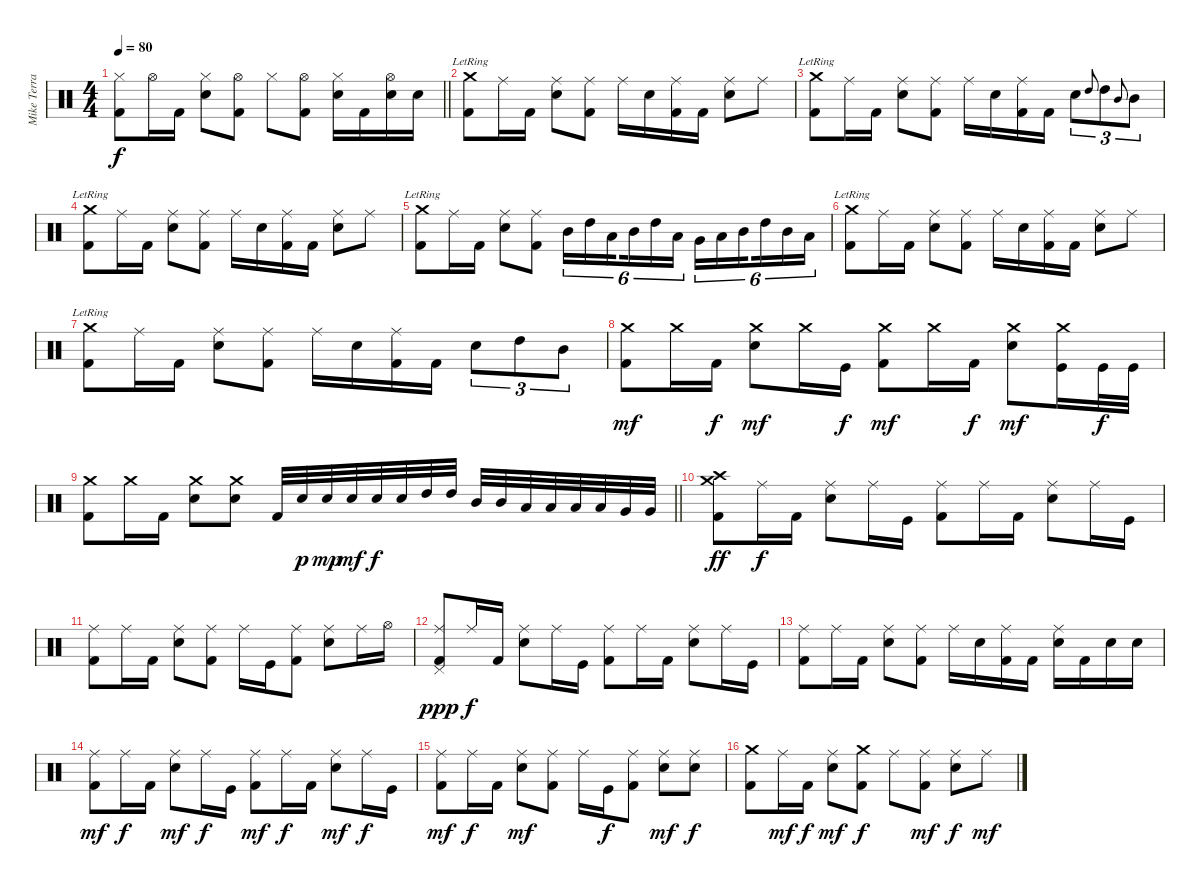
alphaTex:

\track ("Mike Terrana" "Mike Terra") {instrument percussion}
\staff {score}
\articulation defaults
\ts (4 4)
\tempo 80
\clef neutral
\barLineRight lightlight
\ks c
("Hi-Hat (closed)" "Kick (hit) 2").8{dy f} "Hi-Hat (open)".16 "Kick (hit) 2".16 ("Hi-Hat (closed)" "Electric Snare (hit)").8 ("Hi-Hat (open)" "Kick (hit) 2").8 "Hi-Hat (closed)".8 ("Hi-Hat (open)" "Kick (hit) 2").8 ("Hi-Hat (closed)" "Electric Snare (hit)").16 "Kick (hit) 2".16 ("Hi-Hat (open)" "Electric Snare (hit)").16 "Electric Snare (hit)".16 |
("Crash medium (hit)"{lr} "Kick (hit) 2").8 "Ride (middle)".16 "Kick (hit) 2".16 ("Ride (middle)" "Electric Snare (hit)").8 ("Ride (middle)" "Kick (hit) 2").8 "Ride (middle)".16 "Electric Snare (hit)".16 ("Ride (middle)" "Kick (hit) 2").16 "Kick (hit) 2".16 ("Ride (middle)" "Electric Snare (hit)").8 "Ride (middle)".8 |
("Crash medium (hit)"{lr} "Kick (hit) 2").8 "Ride (middle)".16 "Kick (hit) 2".16 ("Ride (middle)" "Electric Snare (hit)").8 ("Ride (middle)" "Kick (hit) 2").8 "Ride (middle)".16 "Electric Snare (hit)".16 ("Ride (middle)" "Kick (hit) 2").16 "Kick (hit) 2".16 "Electric Snare (hit)".8{tu (3 2)} "High Tom (hit)".8{gr onbeat} "High Tom (hit)".8{tu (3 2)} "Mid Tom (hit)".8{gr onbeat} "Mid Tom (hit)".8{tu (3 2)} |
("Crash medium (hit)"{lr} "Kick (hit) 2").8 "Ride (middle)".16 "Kick (hit) 2".16 ("Ride (middle)" "Electric Snare (hit)").8 ("Ride (middle)" "Kick (hit) 2").8 "Ride (middle)".16 "Electric Snare (hit)".16 ("Ride (middle)" "Kick (hit) 2").16 "Kick (hit) 2".16 ("Ride (middle)" "Electric Snare (hit)").8 "Ride (middle)".8 |
("Crash medium (hit)"{lr} "Kick (hit) 2").8 "Ride (middle)".16 "Kick (hit) 2".16 ("Ride (middle)" "Electric Snare (hit)").8 ("Ride (middle)" "Kick (hit) 2").8 "Mid Tom (hit)".16{tu (6 4)} "High Tom (hit)".16{tu (6 4)} "Low Tom (hit)".16{tu (6 4) beam splitsecondary} "Mid Tom (hit)".16{tu (6 4)} "High Tom (hit)".16{tu (6 4)} "Low Tom (hit)".16{tu (6 4)} "Very Low Tom (hit)".16{tu (6 4)} "Low Tom (hit)".16{tu (6 4)} "Mid Tom (hit)".16{tu (6 4) beam splitsecondary} "High Tom (hit)".16{tu (6 4)} "Mid Tom (hit)".16{tu (6 4)} "Low Tom (hit)".16{tu (6 4)} |
("Crash medium (hit)"{lr} "Kick (hit) 2").8 "Ride (middle)".16 "Kick (hit) 2".16 ("Ride (middle)" "Electric Snare (hit)").8 ("Ride (middle)" "Kick (hit) 2").8 "Ride (middle)".16 "Electric Snare (hit)".16 ("Ride (middle)" "Kick (hit) 2").16 "Kick (hit) 2".16 ("Ride (middle)" "Electric Snare (hit)").8 "Ride (middle)".8 |
("Crash medium (hit)"{lr} "Kick (hit) 2").8 "Ride (middle)".16 "Kick (hit) 2".16 ("Ride (middle)" "Electric Snare (hit)").8 ("Ride (middle)" "Kick (hit) 2").8 "Ride (middle)".16 "Electric Snare (hit)".16 ("Ride (middle)" "Kick (hit) 2").16 "Kick (hit) 2".16 "Electric Snare (hit)".8{tu (3 2)} "High Tom (hit)".8{tu (3 2)} "Mid Tom (hit)".8{tu (3 2)} |
("Crash medium (hit)" "Kick (hit) 2").8{dy mf} "Crash medium (hit)".16 "Kick (hit) 2".16{dy f} ("Crash medium (hit)" "Electric Snare (hit)").8{dy mf} "Crash medium (hit)".16 "Kick (hit)".16{dy f} ("Crash medium (hit)" "Kick (hit) 2").8{dy mf} "Crash medium (hit)".16 "Kick (hit) 2".16{dy f} ("Crash medium (hit)" "Electric Snare (hit)").8{dy mf} ("Crash medium (hit)" "Kick (hit)").16 "Kick (hit)".32{dy f} "Kick (hit)".32 |
\barLineRight lightlight
("Crash medium (hit)" "Kick (hit) 2").8 "Crash medium (hit)".16 "Kick (hit) 2".16 ("Crash medium (hit)" "Electric Snare (hit)").8 ("Crash medium (hit)" "Electric Snare (hit)").8 "Kick (hit) 2".32 "Electric Snare (hit)".32{dy p} "Electric Snare (hit)".32{dy mp} "Electric Snare (hit)".32{dy mf} "Electric Snare (hit)".32{dy f} "Electric Snare (hit)".32 "High Tom (hit)".32 "High Tom (hit)".32 "Mid Tom (hit)".32 "Mid Tom (hit)".32 "Low Tom (hit)".32 "Low Tom (hit)".32 "Low Tom (hit)".32 "Low Tom (hit)".32 "Very Low Tom (hit)".32 "Very Low Tom (hit)".32 |
("Crash high (hit)" "Crash medium (hit)" "Kick (hit) 2").8{dy ff} "Ride (middle)".16{dy f} "Kick (hit) 2".16 ("Ride (middle)" "Electric Snare (hit)").8 "Ride (middle)".16 "Kick (hit)".16 ("Ride (middle)" "Kick (hit) 2").8 "Ride (middle)".16 "Kick (hit) 2".16 ("Ride (middle)" "Electric Snare (hit)").8 "Ride (middle)".16 "Kick (hit)".16 |
("Ride (middle)" "Kick (hit) 2").8 "Ride (middle)".16 "Kick (hit) 2".16 ("Ride (middle)" "Electric Snare (hit)").8 ("Ride (middle)" "Kick (hit) 2").8 "Ride (middle)".16 "Kick (hit)".16 ("Ride (middle)" "Kick (hit) 2").8 ("Ride (middle)" "Electric Snare (hit)").8 "Ride (middle)".16 "Hi-Hat (open)".16 |
("Ride (middle)" "Pedal Hi-Hat (hit)" "Kick (hit) 2").8{dy ppp} "Ride (middle)".16{dy f} "Kick (hit) 2".16 ("Ride (middle)" "Electric Snare (hit)").8 "Ride (middle)".16 "Kick (hit)".16 ("Ride (middle)" "Kick (hit) 2").8 "Ride (middle)".16 "Kick (hit) 2".16 ("Ride (middle)" "Electric Snare (hit)").8 "Ride (middle)".16 "Kick (hit)".16 |
("Ride (middle)" "Kick (hit) 2").8 "Ride (middle)".16 "Kick (hit) 2".16 ("Ride (middle)" "Electric Snare (hit)").8 ("Ride (middle)" "Kick (hit) 2").8 "Ride (middle)".16 "Electric Snare (hit)".16 ("Ride (middle)" "Kick (hit) 2").16 "Kick (hit) 2".16 ("Ride (middle)" "Electric Snare (hit)").16 "Kick (hit) 2".16 "Electric Snare (hit)".16 "Electric Snare (hit)".16 |
("Ride (middle)" "Kick (hit) 2").8{dy mf} "Ride (middle)".16{dy f} "Kick (hit) 2".16 ("Ride (middle)" "Electric Snare (hit)").8{dy mf} "Ride (middle)".16{dy f} "Kick (hit)".16 ("Ride (middle)" "Kick (hit) 2").8{dy mf} "Ride (middle)".16{dy f} "Kick (hit) 2".16 ("Ride (middle)" "Electric Snare (hit)").8{dy mf} "Ride (middle)".16{dy f} "Kick (hit)".16 |
("Ride (middle)" "Kick (hit) 2").8{dy mf} "Ride (middle)".16{dy f} "Kick (hit) 2".16 ("Ride (middle)" "Electric Snare (hit)").8{dy mf} ("Ride (middle)" "Kick (hit) 2").8 "Ride (middle)".16 "Kick (hit)".16{dy f} ("Ride (middle)" "Kick (hit) 2").8 ("Ride (middle)" "Electric Snare (hit)").8{dy mf} ("Ride (middle)" "Electric Snare (hit)").8{dy f} |
("Crash medium (hit)" "Kick (hit) 2").8 "Ride (middle)".16{dy mf} "Kick (hit) 2".16{dy f} ("Ride (middle)" "Electric Snare (hit)").8{dy mf} ("Crash medium (hit)" "Kick (hit) 2").8{dy f} "Ride (middle)".8 ("Ride (middle)" "Kick (hit) 2").8{dy mf} ("Ride (middle)" "Electric Snare (hit)").8{dy f} "Ride (middle)".8{dy mf}
